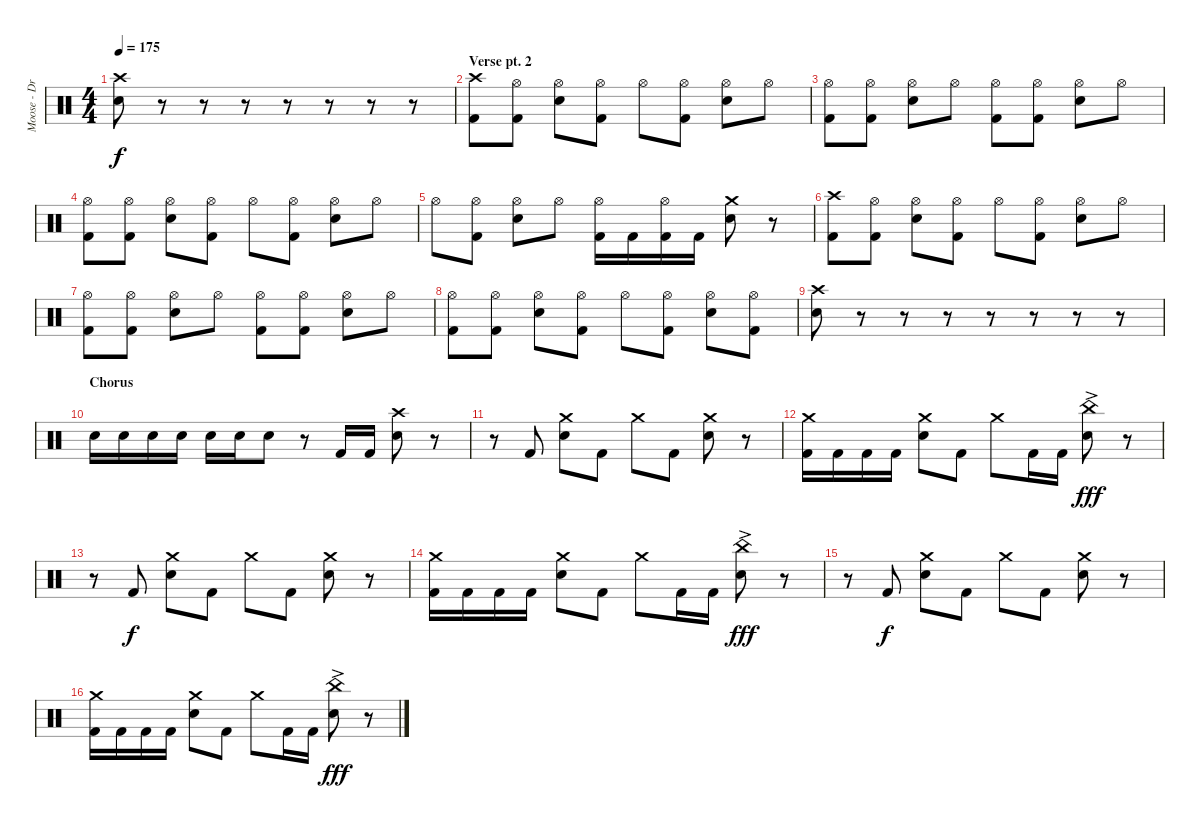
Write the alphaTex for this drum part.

\track ("Moose - Drums" "Moose - Dr") {instrument percussion}
\staff {score}
\articulation defaults
\ts (4 4)
\tempo 175
\clef neutral
\ks c
("Crash high (hit)" "Electric Snare (hit)").8{dy f} r.8 r.8 r.8 r.8 r.8 r.8 r.8 |
\section ("" "Verse pt. 2")
("Crash high (hit)" "Kick (hit) 2").8 ("Hi-Hat (open)" "Kick (hit) 2").8 ("Hi-Hat (open)" "Electric Snare (hit)").8 ("Hi-Hat (open)" "Kick (hit) 2").8 "Hi-Hat (open)".8 ("Hi-Hat (open)" "Kick (hit) 2").8 ("Hi-Hat (open)" "Electric Snare (hit)").8 "Hi-Hat (open)".8 |
("Hi-Hat (open)" "Kick (hit) 2").8 ("Hi-Hat (open)" "Kick (hit) 2").8 ("Hi-Hat (open)" "Electric Snare (hit)").8 "Hi-Hat (open)".8 ("Hi-Hat (open)" "Kick (hit) 2").8 ("Hi-Hat (open)" "Kick (hit) 2").8 ("Hi-Hat (open)" "Electric Snare (hit)").8 "Hi-Hat (open)".8 |
("Hi-Hat (open)" "Kick (hit) 2").8 ("Hi-Hat (open)" "Kick (hit) 2").8 ("Hi-Hat (open)" "Electric Snare (hit)").8 ("Hi-Hat (open)" "Kick (hit) 2").8 "Hi-Hat (open)".8 ("Hi-Hat (open)" "Kick (hit) 2").8 ("Hi-Hat (open)" "Electric Snare (hit)").8 "Hi-Hat (open)".8 |
"Hi-Hat (open)".8 ("Hi-Hat (open)" "Kick (hit) 2").8 ("Hi-Hat (open)" "Electric Snare (hit)").8 "Hi-Hat (open)".8 ("Hi-Hat (open)" "Kick (hit) 2").16 "Kick (hit) 2".16 ("Hi-Hat (open)" "Kick (hit) 2").16 "Kick (hit) 2".16 ("Crash medium (hit)" "Electric Snare (hit)").8 r.8 |
("Crash high (hit)" "Kick (hit) 2").8 ("Hi-Hat (open)" "Kick (hit) 2").8 ("Hi-Hat (open)" "Electric Snare (hit)").8 ("Hi-Hat (open)" "Kick (hit) 2").8 "Hi-Hat (open)".8 ("Hi-Hat (open)" "Kick (hit) 2").8 ("Hi-Hat (open)" "Electric Snare (hit)").8 "Hi-Hat (open)".8 |
("Hi-Hat (open)" "Kick (hit) 2").8 ("Hi-Hat (open)" "Kick (hit) 2").8 ("Hi-Hat (open)" "Electric Snare (hit)").8 "Hi-Hat (open)".8 ("Hi-Hat (open)" "Kick (hit) 2").8 ("Hi-Hat (open)" "Kick (hit) 2").8 ("Hi-Hat (open)" "Electric Snare (hit)").8 "Hi-Hat (open)".8 |
("Hi-Hat (open)" "Kick (hit) 2").8 ("Hi-Hat (open)" "Kick (hit) 2").8 ("Hi-Hat (open)" "Electric Snare (hit)").8 ("Hi-Hat (open)" "Kick (hit) 2").8 "Hi-Hat (open)".8 ("Hi-Hat (open)" "Kick (hit) 2").8 ("Hi-Hat (open)" "Electric Snare (hit)").8 ("Hi-Hat (open)" "Kick (hit) 2").8 |
("Crash high (hit)" "Electric Snare (hit)").8 r.8 r.8 r.8 r.8 r.8 r.8 r.8 |
\section ("" "Chorus")
"Electric Snare (hit)".16 "Electric Snare (hit)".16 "Electric Snare (hit)".16 "Electric Snare (hit)".16 "Electric Snare (hit)".16 "Electric Snare (hit)".16 "Electric Snare (hit)".8 r.8 "Kick (hit) 2".16 "Kick (hit) 2".16 ("Crash high (hit)" "Electric Snare (hit)").8 r.8 |
r.8 "Kick (hit) 2".8 ("Crash medium (hit)" "Electric Snare (hit)").8 "Kick (hit) 2".8 "Crash medium (hit)".8 "Kick (hit) 2".8 ("Crash medium (hit)" "Electric Snare (hit)").8 r.8 |
("Crash medium (hit)" "Kick (hit) 2").16 "Kick (hit) 2".16 "Kick (hit) 2".16 "Kick (hit) 2".16 ("Crash medium (hit)" "Electric Snare (hit)").8 "Kick (hit) 2".8 "Crash medium (hit)".8 "Kick (hit) 2".16 "Kick (hit) 2".16 ("China (hit)"{ac} "Electric Snare (hit)").8{dy fff} r.8 |
r.8 "Kick (hit) 2".8{dy f} ("Crash medium (hit)" "Electric Snare (hit)").8 "Kick (hit) 2".8 "Crash medium (hit)".8 "Kick (hit) 2".8 ("Crash medium (hit)" "Electric Snare (hit)").8 r.8 |
("Crash medium (hit)" "Kick (hit) 2").16 "Kick (hit) 2".16 "Kick (hit) 2".16 "Kick (hit) 2".16 ("Crash medium (hit)" "Electric Snare (hit)").8 "Kick (hit) 2".8 "Crash medium (hit)".8 "Kick (hit) 2".16 "Kick (hit) 2".16 ("China (hit)"{ac} "Electric Snare (hit)").8{dy fff} r.8 |
r.8 "Kick (hit) 2".8{dy f} ("Crash medium (hit)" "Electric Snare (hit)").8 "Kick (hit) 2".8 "Crash medium (hit)".8 "Kick (hit) 2".8 ("Crash medium (hit)" "Electric Snare (hit)").8 r.8 |
("Crash medium (hit)" "Kick (hit) 2").16 "Kick (hit) 2".16 "Kick (hit) 2".16 "Kick (hit) 2".16 ("Crash medium (hit)" "Electric Snare (hit)").8 "Kick (hit) 2".8 "Crash medium (hit)".8 "Kick (hit) 2".16 "Kick (hit) 2".16 ("China (hit)"{ac} "Electric Snare (hit)").8{dy fff} r.8
